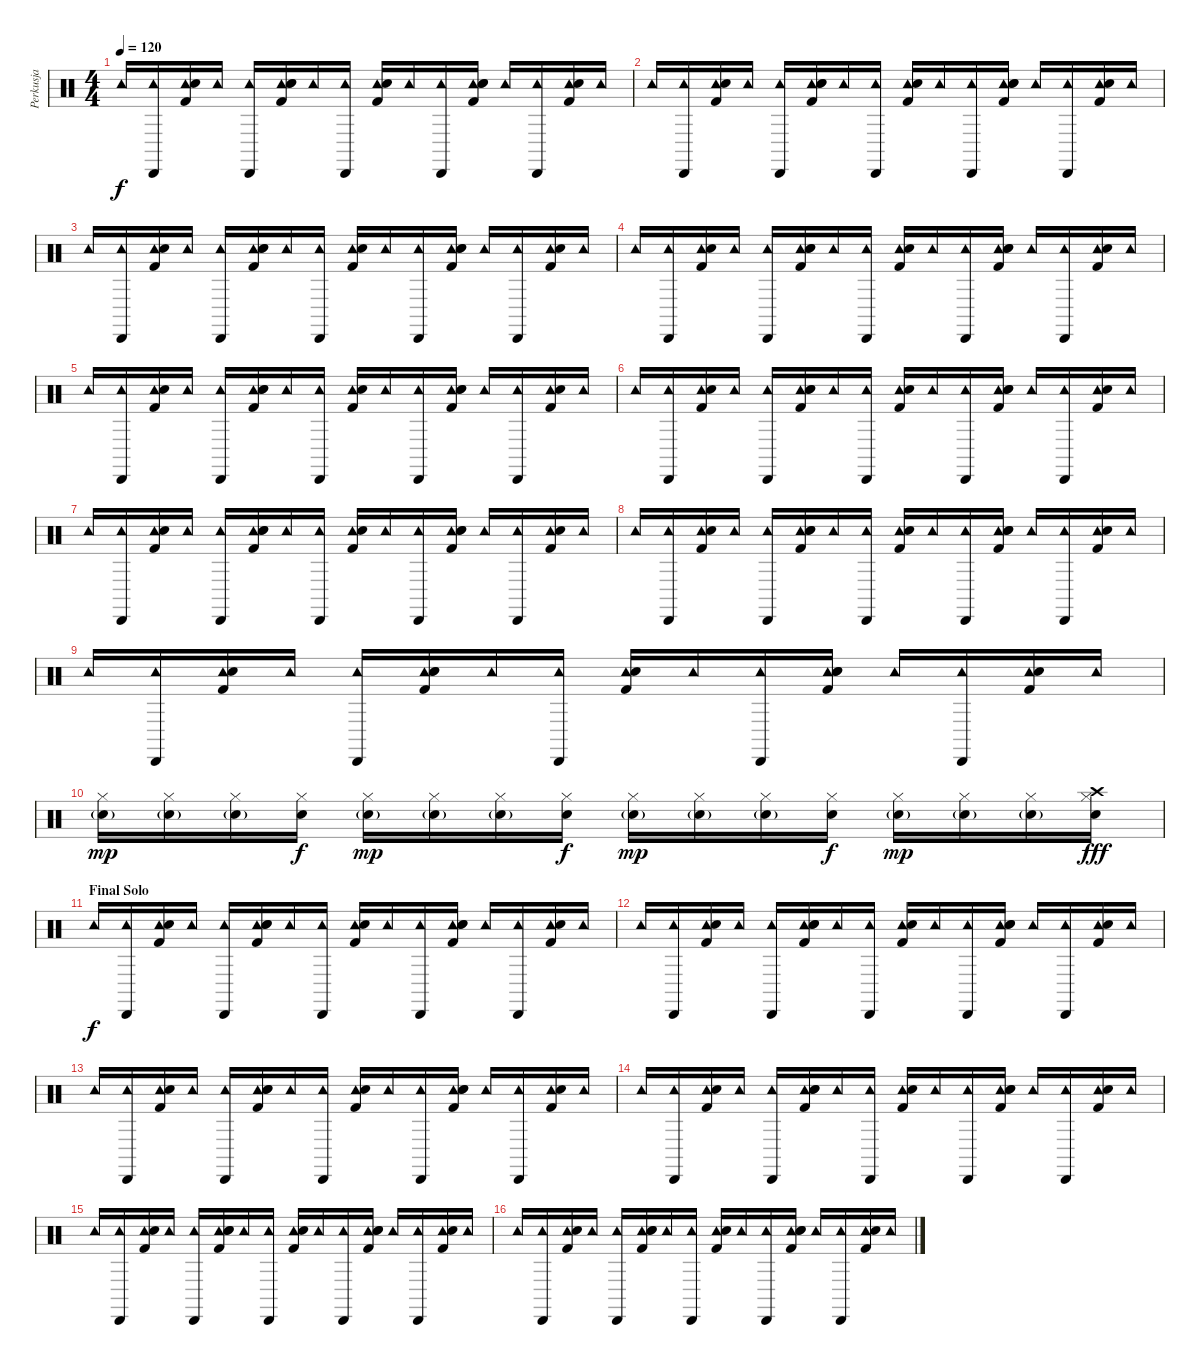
\track ("Perkusja" "Perkusja") {instrument percussion}
\staff {score}
\articulation defaults
\ts (4 4)
\tempo 120
\clef neutral
\ks c "Tambourine (hit)".16{dy f}
("Tambourine (hit)" "Cabasa (hit)").16 ("Tambourine (hit)" "Kick (hit) 2" "Snare (hit) 2").16 "Tambourine (hit)".16 ("Tambourine (hit)" "Cabasa (hit)").16 ("Tambourine (hit)" "Kick (hit) 2" "Electric Snare (hit)" "Snare (hit) 2").16 "Tambourine (hit)".16 ("Tambourine (hit)" "Cabasa (hit)").16 ("Tambourine (hit)" "Kick (hit) 2" "Snare (hit) 2").16 "Tambourine (hit)".16 ("Tambourine (hit)" "Cabasa (hit)").16 ("Tambourine (hit)" "Kick (hit) 2" "Electric Snare (hit)" "Snare (hit) 2").16 "Tambourine (hit)".16 ("Tambourine (hit)" "Cabasa (hit)").16 ("Tambourine (hit)" "Kick (hit) 2" "Snare (hit) 2").16 "Tambourine (hit)".16 |
"Tambourine (hit)".16 ("Tambourine (hit)" "Cabasa (hit)").16 ("Tambourine (hit)" "Kick (hit) 2" "Snare (hit) 2").16 "Tambourine (hit)".16 ("Tambourine (hit)" "Cabasa (hit)").16 ("Tambourine (hit)" "Kick (hit) 2" "Electric Snare (hit)" "Snare (hit) 2").16 "Tambourine (hit)".16 ("Tambourine (hit)" "Cabasa (hit)").16 ("Tambourine (hit)" "Kick (hit) 2" "Snare (hit) 2").16 "Tambourine (hit)".16 ("Tambourine (hit)" "Cabasa (hit)").16 ("Tambourine (hit)" "Kick (hit) 2" "Electric Snare (hit)" "Snare (hit) 2").16 "Tambourine (hit)".16 ("Tambourine (hit)" "Cabasa (hit)").16 ("Tambourine (hit)" "Kick (hit) 2" "Snare (hit) 2").16 "Tambourine (hit)".16 |
"Tambourine (hit)".16 ("Tambourine (hit)" "Cabasa (hit)").16 ("Tambourine (hit)" "Kick (hit) 2" "Snare (hit) 2").16 "Tambourine (hit)".16 ("Tambourine (hit)" "Cabasa (hit)").16 ("Tambourine (hit)" "Kick (hit) 2" "Electric Snare (hit)" "Snare (hit) 2").16 "Tambourine (hit)".16 ("Tambourine (hit)" "Cabasa (hit)").16 ("Tambourine (hit)" "Kick (hit) 2" "Snare (hit) 2").16 "Tambourine (hit)".16 ("Tambourine (hit)" "Cabasa (hit)").16 ("Tambourine (hit)" "Kick (hit) 2" "Electric Snare (hit)" "Snare (hit) 2").16 "Tambourine (hit)".16 ("Tambourine (hit)" "Cabasa (hit)").16 ("Tambourine (hit)" "Kick (hit) 2" "Snare (hit) 2").16 "Tambourine (hit)".16 |
"Tambourine (hit)".16 ("Tambourine (hit)" "Cabasa (hit)").16 ("Tambourine (hit)" "Kick (hit) 2" "Snare (hit) 2").16 "Tambourine (hit)".16 ("Tambourine (hit)" "Cabasa (hit)").16 ("Tambourine (hit)" "Kick (hit) 2" "Electric Snare (hit)" "Snare (hit) 2").16 "Tambourine (hit)".16 ("Tambourine (hit)" "Cabasa (hit)").16 ("Tambourine (hit)" "Kick (hit) 2" "Snare (hit) 2").16 "Tambourine (hit)".16 ("Tambourine (hit)" "Cabasa (hit)").16 ("Tambourine (hit)" "Kick (hit) 2" "Electric Snare (hit)" "Snare (hit) 2").16 "Tambourine (hit)".16 ("Tambourine (hit)" "Cabasa (hit)").16 ("Tambourine (hit)" "Kick (hit) 2" "Snare (hit) 2").16 "Tambourine (hit)".16 |
"Tambourine (hit)".16 ("Tambourine (hit)" "Cabasa (hit)").16 ("Tambourine (hit)" "Kick (hit) 2" "Snare (hit) 2").16 "Tambourine (hit)".16 ("Tambourine (hit)" "Cabasa (hit)").16 ("Tambourine (hit)" "Kick (hit) 2" "Electric Snare (hit)" "Snare (hit) 2").16 "Tambourine (hit)".16 ("Tambourine (hit)" "Cabasa (hit)").16 ("Tambourine (hit)" "Kick (hit) 2" "Snare (hit) 2").16 "Tambourine (hit)".16 ("Tambourine (hit)" "Cabasa (hit)").16 ("Tambourine (hit)" "Kick (hit) 2" "Electric Snare (hit)" "Snare (hit) 2").16 "Tambourine (hit)".16 ("Tambourine (hit)" "Cabasa (hit)").16 ("Tambourine (hit)" "Kick (hit) 2" "Snare (hit) 2").16 "Tambourine (hit)".16 |
"Tambourine (hit)".16 ("Tambourine (hit)" "Cabasa (hit)").16 ("Tambourine (hit)" "Kick (hit) 2" "Snare (hit) 2").16 "Tambourine (hit)".16 ("Tambourine (hit)" "Cabasa (hit)").16 ("Tambourine (hit)" "Kick (hit) 2" "Electric Snare (hit)" "Snare (hit) 2").16 "Tambourine (hit)".16 ("Tambourine (hit)" "Cabasa (hit)").16 ("Tambourine (hit)" "Kick (hit) 2" "Snare (hit) 2").16 "Tambourine (hit)".16 ("Tambourine (hit)" "Cabasa (hit)").16 ("Tambourine (hit)" "Kick (hit) 2" "Electric Snare (hit)" "Snare (hit) 2").16 "Tambourine (hit)".16 ("Tambourine (hit)" "Cabasa (hit)").16 ("Tambourine (hit)" "Kick (hit) 2" "Snare (hit) 2").16 "Tambourine (hit)".16 |
"Tambourine (hit)".16 ("Tambourine (hit)" "Cabasa (hit)").16 ("Tambourine (hit)" "Kick (hit) 2" "Snare (hit) 2").16 "Tambourine (hit)".16 ("Tambourine (hit)" "Cabasa (hit)").16 ("Tambourine (hit)" "Kick (hit) 2" "Electric Snare (hit)" "Snare (hit) 2").16 "Tambourine (hit)".16 ("Tambourine (hit)" "Cabasa (hit)").16 ("Tambourine (hit)" "Kick (hit) 2" "Snare (hit) 2").16 "Tambourine (hit)".16 ("Tambourine (hit)" "Cabasa (hit)").16 ("Tambourine (hit)" "Kick (hit) 2" "Electric Snare (hit)" "Snare (hit) 2").16 "Tambourine (hit)".16 ("Tambourine (hit)" "Cabasa (hit)").16 ("Tambourine (hit)" "Kick (hit) 2" "Snare (hit) 2").16 "Tambourine (hit)".16 |
"Tambourine (hit)".16 ("Tambourine (hit)" "Cabasa (hit)").16 ("Tambourine (hit)" "Kick (hit) 2" "Snare (hit) 2").16 "Tambourine (hit)".16 ("Tambourine (hit)" "Cabasa (hit)").16 ("Tambourine (hit)" "Kick (hit) 2" "Electric Snare (hit)" "Snare (hit) 2").16 "Tambourine (hit)".16 ("Tambourine (hit)" "Cabasa (hit)").16 ("Tambourine (hit)" "Kick (hit) 2" "Snare (hit) 2").16 "Tambourine (hit)".16 ("Tambourine (hit)" "Cabasa (hit)").16 ("Tambourine (hit)" "Kick (hit) 2" "Electric Snare (hit)" "Snare (hit) 2").16 "Tambourine (hit)".16 ("Tambourine (hit)" "Cabasa (hit)").16 ("Tambourine (hit)" "Kick (hit) 2" "Snare (hit) 2").16 "Tambourine (hit)".16 |
"Tambourine (hit)".16 ("Tambourine (hit)" "Cabasa (hit)").16 ("Tambourine (hit)" "Kick (hit) 2" "Snare (hit) 2").16 "Tambourine (hit)".16 ("Tambourine (hit)" "Cabasa (hit)").16 ("Tambourine (hit)" "Kick (hit) 2" "Electric Snare (hit)" "Snare (hit) 2").16 "Tambourine (hit)".16 ("Tambourine (hit)" "Cabasa (hit)").16 ("Tambourine (hit)" "Kick (hit) 2" "Snare (hit) 2").16 "Tambourine (hit)".16 ("Tambourine (hit)" "Cabasa (hit)").16 ("Tambourine (hit)" "Kick (hit) 2" "Electric Snare (hit)" "Snare (hit) 2").16 "Tambourine (hit)".16 ("Tambourine (hit)" "Cabasa (hit)").16 ("Tambourine (hit)" "Kick (hit) 2" "Snare (hit) 2").16 "Tambourine (hit)".16 |
("Hi-Hat (closed)" "Electric Snare (hit)"{g}).16{dy mp} ("Hi-Hat (closed)" "Electric Snare (hit)"{g}).16 ("Hi-Hat (closed)" "Electric Snare (hit)"{g}).16 ("Hi-Hat (closed)" "Electric Snare (hit)").16{dy f} ("Hi-Hat (closed)" "Electric Snare (hit)"{g}).16{dy mp} ("Hi-Hat (closed)" "Electric Snare (hit)"{g}).16 ("Hi-Hat (closed)" "Electric Snare (hit)"{g}).16 ("Hi-Hat (closed)" "Electric Snare (hit)").16{dy f} ("Hi-Hat (closed)" "Electric Snare (hit)"{g}).16{dy mp} ("Hi-Hat (closed)" "Electric Snare (hit)"{g}).16 ("Hi-Hat (closed)" "Electric Snare (hit)"{g}).16 ("Hi-Hat (closed)" "Electric Snare (hit)").16{dy f} ("Hi-Hat (closed)" "Electric Snare (hit)"{g}).16{dy mp} ("Hi-Hat (closed)" "Electric Snare (hit)"{g}).16 ("Hi-Hat (closed)" "Electric Snare (hit)"{g}).16 ("Hi-Hat (closed)" "Electric Snare (hit)" "Crash high (hit)").16{dy fff} |
\section ("" "Final Solo")
"Tambourine (hit)".16{dy f} ("Tambourine (hit)" "Cabasa (hit)").16 ("Tambourine (hit)" "Kick (hit) 2" "Snare (hit) 2").16 "Tambourine (hit)".16 ("Tambourine (hit)" "Cabasa (hit)").16 ("Tambourine (hit)" "Kick (hit) 2" "Electric Snare (hit)" "Snare (hit) 2").16 "Tambourine (hit)".16 ("Tambourine (hit)" "Cabasa (hit)").16 ("Tambourine (hit)" "Kick (hit) 2" "Snare (hit) 2").16 "Tambourine (hit)".16 ("Tambourine (hit)" "Cabasa (hit)").16 ("Tambourine (hit)" "Kick (hit) 2" "Electric Snare (hit)" "Snare (hit) 2").16 "Tambourine (hit)".16 ("Tambourine (hit)" "Cabasa (hit)").16 ("Tambourine (hit)" "Kick (hit) 2" "Snare (hit) 2").16 "Tambourine (hit)".16 |
"Tambourine (hit)".16 ("Tambourine (hit)" "Cabasa (hit)").16 ("Tambourine (hit)" "Kick (hit) 2" "Snare (hit) 2").16 "Tambourine (hit)".16 ("Tambourine (hit)" "Cabasa (hit)").16 ("Tambourine (hit)" "Kick (hit) 2" "Electric Snare (hit)" "Snare (hit) 2").16 "Tambourine (hit)".16 ("Tambourine (hit)" "Cabasa (hit)").16 ("Tambourine (hit)" "Kick (hit) 2" "Snare (hit) 2").16 "Tambourine (hit)".16 ("Tambourine (hit)" "Cabasa (hit)").16 ("Tambourine (hit)" "Kick (hit) 2" "Electric Snare (hit)" "Snare (hit) 2").16 "Tambourine (hit)".16 ("Tambourine (hit)" "Cabasa (hit)").16 ("Tambourine (hit)" "Kick (hit) 2" "Snare (hit) 2").16 "Tambourine (hit)".16 |
"Tambourine (hit)".16 ("Tambourine (hit)" "Cabasa (hit)").16 ("Tambourine (hit)" "Kick (hit) 2" "Snare (hit) 2").16 "Tambourine (hit)".16 ("Tambourine (hit)" "Cabasa (hit)").16 ("Tambourine (hit)" "Kick (hit) 2" "Electric Snare (hit)" "Snare (hit) 2").16 "Tambourine (hit)".16 ("Tambourine (hit)" "Cabasa (hit)").16 ("Tambourine (hit)" "Kick (hit) 2" "Snare (hit) 2").16 "Tambourine (hit)".16 ("Tambourine (hit)" "Cabasa (hit)").16 ("Tambourine (hit)" "Kick (hit) 2" "Electric Snare (hit)" "Snare (hit) 2").16 "Tambourine (hit)".16 ("Tambourine (hit)" "Cabasa (hit)").16 ("Tambourine (hit)" "Kick (hit) 2" "Snare (hit) 2").16 "Tambourine (hit)".16 |
"Tambourine (hit)".16 ("Tambourine (hit)" "Cabasa (hit)").16 ("Tambourine (hit)" "Kick (hit) 2" "Snare (hit) 2").16 "Tambourine (hit)".16 ("Tambourine (hit)" "Cabasa (hit)").16 ("Tambourine (hit)" "Kick (hit) 2" "Electric Snare (hit)" "Snare (hit) 2").16 "Tambourine (hit)".16 ("Tambourine (hit)" "Cabasa (hit)").16 ("Tambourine (hit)" "Kick (hit) 2" "Snare (hit) 2").16 "Tambourine (hit)".16 ("Tambourine (hit)" "Cabasa (hit)").16 ("Tambourine (hit)" "Kick (hit) 2" "Electric Snare (hit)" "Snare (hit) 2").16 "Tambourine (hit)".16 ("Tambourine (hit)" "Cabasa (hit)").16 ("Tambourine (hit)" "Kick (hit) 2" "Snare (hit) 2").16 "Tambourine (hit)".16 |
"Tambourine (hit)".16 ("Tambourine (hit)" "Cabasa (hit)").16 ("Tambourine (hit)" "Kick (hit) 2" "Snare (hit) 2").16 "Tambourine (hit)".16 ("Tambourine (hit)" "Cabasa (hit)").16 ("Tambourine (hit)" "Kick (hit) 2" "Electric Snare (hit)" "Snare (hit) 2").16 "Tambourine (hit)".16 ("Tambourine (hit)" "Cabasa (hit)").16 ("Tambourine (hit)" "Kick (hit) 2" "Snare (hit) 2").16 "Tambourine (hit)".16 ("Tambourine (hit)" "Cabasa (hit)").16 ("Tambourine (hit)" "Kick (hit) 2" "Electric Snare (hit)" "Snare (hit) 2").16 "Tambourine (hit)".16 ("Tambourine (hit)" "Cabasa (hit)").16 ("Tambourine (hit)" "Kick (hit) 2" "Snare (hit) 2").16 "Tambourine (hit)".16 |
"Tambourine (hit)".16 ("Tambourine (hit)" "Cabasa (hit)").16 ("Tambourine (hit)" "Kick (hit) 2" "Snare (hit) 2").16 "Tambourine (hit)".16 ("Tambourine (hit)" "Cabasa (hit)").16 ("Tambourine (hit)" "Kick (hit) 2" "Electric Snare (hit)" "Snare (hit) 2").16 "Tambourine (hit)".16 ("Tambourine (hit)" "Cabasa (hit)").16 ("Tambourine (hit)" "Kick (hit) 2" "Snare (hit) 2").16 "Tambourine (hit)".16 ("Tambourine (hit)" "Cabasa (hit)").16 ("Tambourine (hit)" "Kick (hit) 2" "Electric Snare (hit)" "Snare (hit) 2").16 "Tambourine (hit)".16 ("Tambourine (hit)" "Cabasa (hit)").16 ("Tambourine (hit)" "Kick (hit) 2" "Snare (hit) 2").16 "Tambourine (hit)".16
